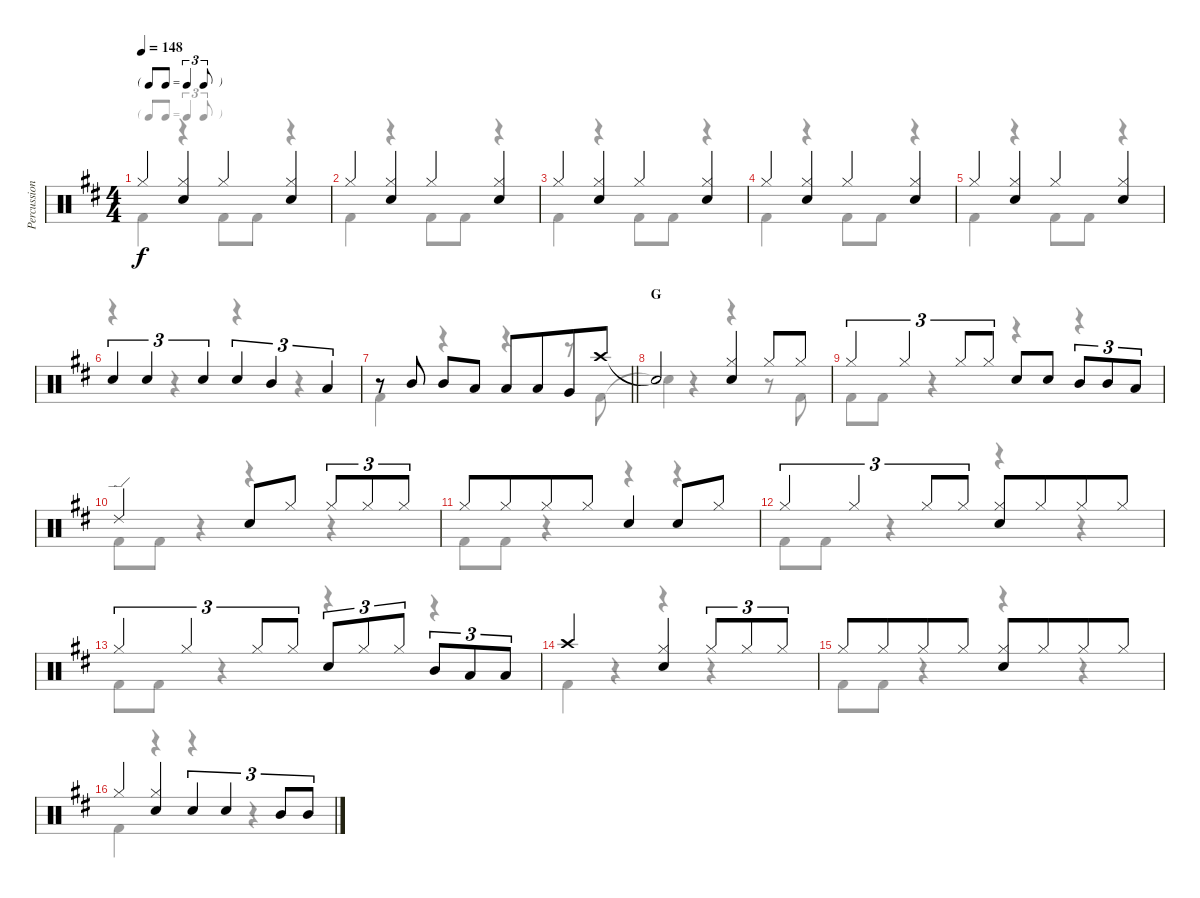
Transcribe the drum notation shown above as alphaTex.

\track ("Percussion" "Percussion") {instrument percussion}
\staff {score}
\articulation defaults
\voice
\ts (4 4)
\tf triplet8th
\tempo 148
\clef neutral
\ks bminor "Hi-Hat (closed)".4{dy f}
("Hi-Hat (closed)" "Snare (hit) 2").4 "Hi-Hat (closed)".4 ("Hi-Hat (closed)" "Snare (hit) 2").4 |
"Hi-Hat (closed)".4 ("Hi-Hat (closed)" "Snare (hit) 2").4 "Hi-Hat (closed)".4 ("Hi-Hat (closed)" "Snare (hit) 2").4 |
"Hi-Hat (closed)".4 ("Hi-Hat (closed)" "Snare (hit) 2").4 "Hi-Hat (closed)".4 ("Hi-Hat (closed)" "Snare (hit) 2").4 |
"Hi-Hat (closed)".4 ("Hi-Hat (closed)" "Snare (hit) 2").4 "Hi-Hat (closed)".4 ("Hi-Hat (closed)" "Snare (hit) 2").4 |
"Hi-Hat (closed)".4 ("Hi-Hat (closed)" "Snare (hit) 2").4 "Hi-Hat (closed)".4 ("Hi-Hat (closed)" "Snare (hit) 2").4 |
"Snare (hit) 2".4{tu (3 2)} "Snare (hit) 2".4{tu (3 2)} "Snare (hit) 2".4{tu (3 2)} "Snare (hit) 2".4{tu (3 2)} "Mid Tom (hit)".4{tu (3 2)} "Low Tom (hit)".4{tu (3 2)} |
\barLineRight lightlight
r.8 "Mid Tom (hit)".8 "Mid Tom (hit)".8 "Low Tom (hit)".8 "Low Tom (hit)".8 "Low Tom (hit)".8{beam merge} "Very Low Tom (hit)".8 "Crash high (hit)".8 |
\section ("" "G")
"Snare (hit)"{t}.2 ("Hi-Hat (closed)" "Snare (hit) 2").4 "Hi-Hat (closed)".8 "Hi-Hat (closed)".8 |
"Hi-Hat (closed)".4{tu (3 2)} "Hi-Hat (closed)".4{tu (3 2)} "Hi-Hat (closed)".8{tu (3 2)} "Hi-Hat (closed)".8{tu (3 2)} "Snare (hit) 2".8 "Snare (hit) 2".8 "Mid Tom (hit)".8{tu (3 2)} "Mid Tom (hit)".8{tu (3 2)} "Low Tom (hit)".8{tu (3 2)} |
"Ride (edge) 2".2 "Snare (hit) 2".8 "Hi-Hat (closed)".8 "Hi-Hat (closed)".8{tu (3 2)} "Hi-Hat (closed)".8{tu (3 2)} "Hi-Hat (closed)".8{tu (3 2)} |
"Hi-Hat (closed)".8 "Hi-Hat (closed)".8{beam merge} "Hi-Hat (closed)".8 "Hi-Hat (closed)".8 "Snare (hit) 2".4 "Snare (hit) 2".8 "Hi-Hat (closed)".8 |
"Hi-Hat (closed)".4{tu (3 2)} "Hi-Hat (closed)".4{tu (3 2)} "Hi-Hat (closed)".8{tu (3 2)} "Hi-Hat (closed)".8{tu (3 2)} ("Hi-Hat (closed)" "Snare (hit) 2").8 "Hi-Hat (closed)".8{beam merge} "Hi-Hat (closed)".8 "Hi-Hat (closed)".8 |
"Hi-Hat (closed)".4{tu (3 2)} "Hi-Hat (closed)".4{tu (3 2)} "Hi-Hat (closed)".8{tu (3 2)} "Hi-Hat (closed)".8{tu (3 2)} "Snare (hit) 2".8{tu (3 2)} "Hi-Hat (closed)".8{tu (3 2)} "Hi-Hat (closed)".8{tu (3 2)} "Mid Tom (hit)".8{tu (3 2)} "Low Tom (hit)".8{tu (3 2)} "Low Tom (hit)".8{tu (3 2)} |
"Crash high (hit)".2 ("Hi-Hat (closed)" "Snare (hit) 2").4 "Hi-Hat (closed)".8{tu (3 2)} "Hi-Hat (closed)".8{tu (3 2)} "Hi-Hat (closed)".8{tu (3 2)} |
"Hi-Hat (closed)".8 "Hi-Hat (closed)".8{beam merge} "Hi-Hat (closed)".8 "Hi-Hat (closed)".8 ("Hi-Hat (closed)" "Snare (hit) 2").8 "Hi-Hat (closed)".8{beam merge} "Hi-Hat (closed)".8 "Hi-Hat (closed)".8 |
"Hi-Hat (closed)".4 ("Hi-Hat (closed)" "Snare (hit) 2").4 "Snare (hit) 2".4{tu (3 2)} "Snare (hit) 2".4{tu (3 2)} "Mid Tom (hit)".8{tu (3 2)} "Mid Tom (hit)".8{tu (3 2)}
\voice
\clef neutral
\ottava regular
\simile none
\ks bminor "Kick (hit) 2".4{dy f}
r.4 "Kick (hit) 2".8 "Kick (hit) 2".8 r.4 |
"Kick (hit) 2".4 r.4 "Kick (hit) 2".8 "Kick (hit) 2".8 r.4 |
"Kick (hit) 2".4 r.4 "Kick (hit) 2".8 "Kick (hit) 2".8 r.4 |
"Kick (hit) 2".4 r.4 "Kick (hit) 2".8 "Kick (hit) 2".8 r.4 |
"Kick (hit) 2".4 r.4 "Kick (hit) 2".8 "Kick (hit) 2".8 r.4 |
r.4 r.4 r.4 r.4 |
\barLineRight lightlight "Kick (hit) 2".4
r.4 r.4 r.8 "Kick (hit) 2".8 |
"Snare (hit)"{t}.4 r.4 r.4 r.8 "Kick (hit) 2".8 |
"Kick (hit) 2".8 "Kick (hit) 2".8 r.4 r.4 r.4 |
"Kick (hit) 2".8 "Kick (hit) 2".8 r.4 r.4 r.4 |
"Kick (hit) 2".8 "Kick (hit) 2".8 r.4 r.4 r.4 |
"Kick (hit) 2".8 "Kick (hit) 2".8 r.4 r.4 r.4 |
"Kick (hit) 2".8 "Kick (hit) 2".8 r.4 r.4 r.4 |
"Kick (hit) 2".4 r.4 r.4 r.4 |
"Kick (hit) 2".8 "Kick (hit) 2".8 r.4 r.4 r.4 |
"Kick (hit) 2".4 r.4 r.4 r.4
